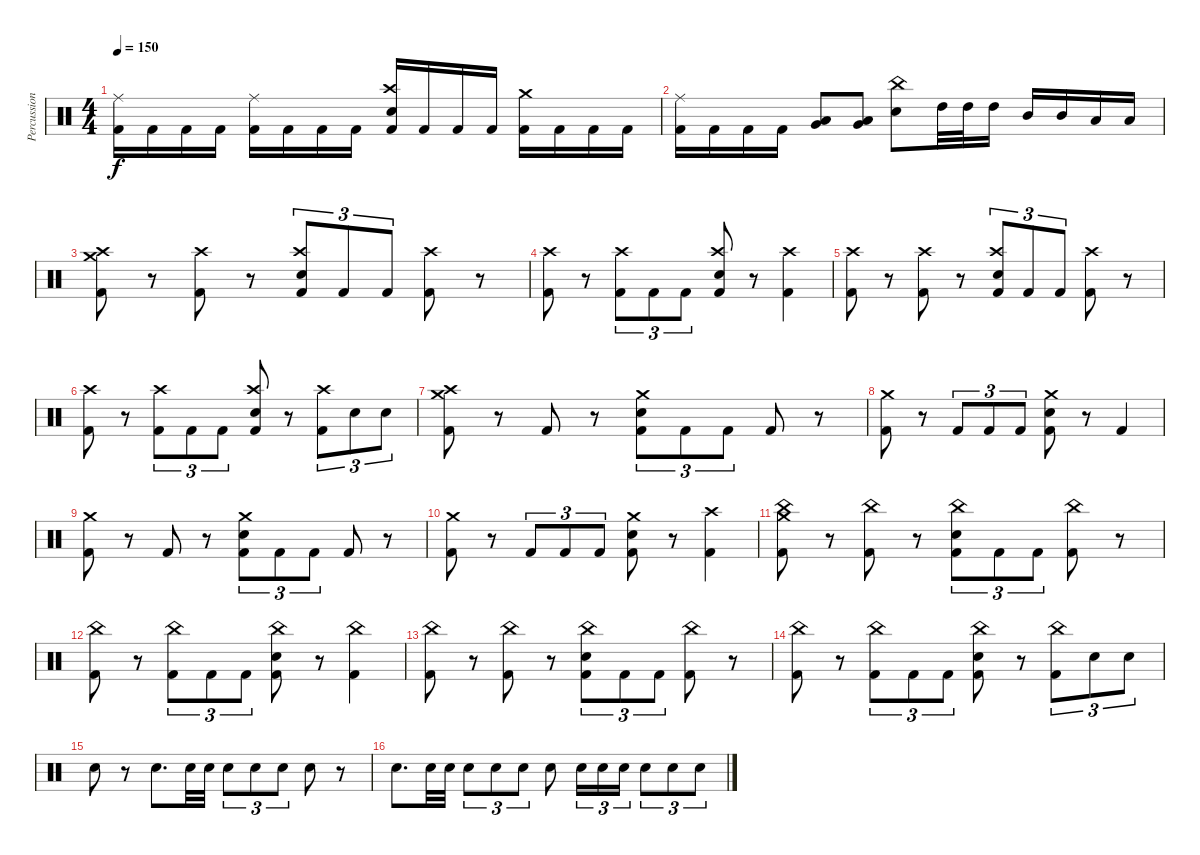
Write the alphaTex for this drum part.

\track ("Percussion" "Percussion") {instrument percussion}
\staff {score}
\articulation defaults
\ts (4 4)
\tempo 150
\clef neutral
\ks c
("Ride (middle)" "Kick (hit) 2").16{dy f} "Kick (hit) 2".16 "Kick (hit) 2".16 "Kick (hit) 2".16 ("Ride (middle)" "Kick (hit) 2").16 "Kick (hit) 2".16 "Kick (hit) 2".16 "Kick (hit) 2".16 ("Crash high (hit)" "Electric Snare (hit)" "Kick (hit) 2").16 "Kick (hit) 2".16 "Kick (hit) 2".16 "Kick (hit) 2".16 ("Crash medium (hit)" "Kick (hit) 2").16 "Kick (hit) 2".16 "Kick (hit) 2".16 "Kick (hit) 2".16 |
("Ride (middle)" "Kick (hit) 2").16 "Kick (hit) 2".16 "Kick (hit) 2".16 "Kick (hit) 2".16 ("Very Low Tom (hit)" "Low Tom (hit)").8 ("Very Low Tom (hit)" "Low Tom (hit)").8 ("China (hit)" "Electric Snare (hit)").8 "High Tom (hit)".32 "High Tom (hit)".32 "High Tom (hit)".16 "Mid Tom (hit)".16 "Mid Tom (hit)".16 "Low Tom (hit)".16 "Low Tom (hit)".16 |
("Crash high (hit)" "Crash medium (hit)" "Kick (hit) 2").8 r.8 ("Crash high (hit)" "Kick (hit) 2").8 r.8 ("Crash high (hit)" "Electric Snare (hit)" "Kick (hit) 2").8{tu (3 2)} "Kick (hit) 2".8{tu (3 2)} "Kick (hit) 2".8{tu (3 2)} ("Crash high (hit)" "Kick (hit) 2").8 r.8 |
("Crash high (hit)" "Kick (hit) 2").8 r.8 ("Crash high (hit)" "Kick (hit) 2").8{tu (3 2)} "Kick (hit) 2".8{tu (3 2)} "Kick (hit) 2".8{tu (3 2)} ("Crash high (hit)" "Electric Snare (hit)" "Kick (hit) 2").8 r.8 ("Crash high (hit)" "Kick (hit) 2").4 |
("Crash high (hit)" "Kick (hit) 2").8 r.8 ("Crash high (hit)" "Kick (hit) 2").8 r.8 ("Crash high (hit)" "Electric Snare (hit)" "Kick (hit) 2").8{tu (3 2)} "Kick (hit) 2".8{tu (3 2)} "Kick (hit) 2".8{tu (3 2)} ("Crash high (hit)" "Kick (hit) 2").8 r.8 |
("Crash high (hit)" "Kick (hit) 2").8 r.8 ("Crash high (hit)" "Kick (hit) 2").8{tu (3 2)} "Kick (hit) 2".8{tu (3 2)} "Kick (hit) 2".8{tu (3 2)} ("Crash high (hit)" "Electric Snare (hit)" "Kick (hit) 2").8 r.8 ("Crash high (hit)" "Kick (hit) 2").8{tu (3 2)} "Electric Snare (hit)".8{tu (3 2)} "Electric Snare (hit)".8{tu (3 2)} |
("Crash high (hit)" "Crash medium (hit)" "Kick (hit) 2").8 r.8 "Kick (hit) 2".8 r.8 ("Crash medium (hit)" "Electric Snare (hit)" "Kick (hit) 2").8{tu (3 2)} "Kick (hit) 2".8{tu (3 2)} "Kick (hit) 2".8{tu (3 2)} "Kick (hit) 2".8 r.8 |
("Crash medium (hit)" "Kick (hit) 2").8 r.8 "Kick (hit) 2".8{tu (3 2)} "Kick (hit) 2".8{tu (3 2)} "Kick (hit) 2".8{tu (3 2)} ("Crash medium (hit)" "Electric Snare (hit)" "Kick (hit) 2").8 r.8 "Kick (hit) 2".4 |
("Crash medium (hit)" "Kick (hit) 2").8 r.8 "Kick (hit) 2".8 r.8 ("Crash medium (hit)" "Electric Snare (hit)" "Kick (hit) 2").8{tu (3 2)} "Kick (hit) 2".8{tu (3 2)} "Kick (hit) 2".8{tu (3 2)} "Kick (hit) 2".8 r.8 |
("Crash medium (hit)" "Kick (hit) 2").8 r.8 "Kick (hit) 2".8{tu (3 2)} "Kick (hit) 2".8{tu (3 2)} "Kick (hit) 2".8{tu (3 2)} ("Crash medium (hit)" "Electric Snare (hit)" "Kick (hit) 2").8 r.8 ("Crash high (hit)" "Kick (hit) 2").4 |
("China (hit)" "Crash medium (hit)" "Kick (hit) 2").8 r.8 ("China (hit)" "Kick (hit) 2").8 r.8 ("China (hit)" "Electric Snare (hit)" "Kick (hit) 2").8{tu (3 2)} "Kick (hit) 2".8{tu (3 2)} "Kick (hit) 2".8{tu (3 2)} ("China (hit)" "Kick (hit) 2").8 r.8 |
("China (hit)" "Kick (hit) 2").8{volume 0} r.8 ("China (hit)" "Kick (hit) 2").8{tu (3 2)} "Kick (hit) 2".8{tu (3 2)} "Kick (hit) 2".8{tu (3 2)} ("China (hit)" "Electric Snare (hit)" "Kick (hit) 2").8 r.8 ("China (hit)" "Kick (hit) 2").4 |
("China (hit)" "Kick (hit) 2").8 r.8 ("China (hit)" "Kick (hit) 2").8 r.8 ("China (hit)" "Electric Snare (hit)" "Kick (hit) 2").8{tu (3 2)} "Kick (hit) 2".8{tu (3 2)} "Kick (hit) 2".8{tu (3 2)} ("China (hit)" "Kick (hit) 2").8 r.8 |
("China (hit)" "Kick (hit) 2").8 r.8 ("China (hit)" "Kick (hit) 2").8{tu (3 2)} "Kick (hit) 2".8{tu (3 2)} "Kick (hit) 2".8{tu (3 2)} ("China (hit)" "Electric Snare (hit)" "Kick (hit) 2").8 r.8 ("China (hit)" "Kick (hit) 2").8{tu (3 2)} "Electric Snare (hit)".8{tu (3 2)} "Electric Snare (hit)".8{tu (3 2)} |
"Electric Snare (hit)".8{volume 10} r.8 "Electric Snare (hit)".8{d} "Electric Snare (hit)".32 "Electric Snare (hit)".32 "Electric Snare (hit)".8{tu (3 2)} "Electric Snare (hit)".8{tu (3 2)} "Electric Snare (hit)".8{tu (3 2)} "Electric Snare (hit)".8 r.8 |
"Electric Snare (hit)".8{d} "Electric Snare (hit)".32 "Electric Snare (hit)".32 "Electric Snare (hit)".8{tu (3 2)} "Electric Snare (hit)".8{tu (3 2)} "Electric Snare (hit)".8{tu (3 2)} "Electric Snare (hit)".8 "Electric Snare (hit)".16{tu (3 2)} "Electric Snare (hit)".16{tu (3 2)} "Electric Snare (hit)".16{tu (3 2)} "Electric Snare (hit)".8{tu (3 2)} "Electric Snare (hit)".8{tu (3 2)} "Electric Snare (hit)".8{tu (3 2)}
